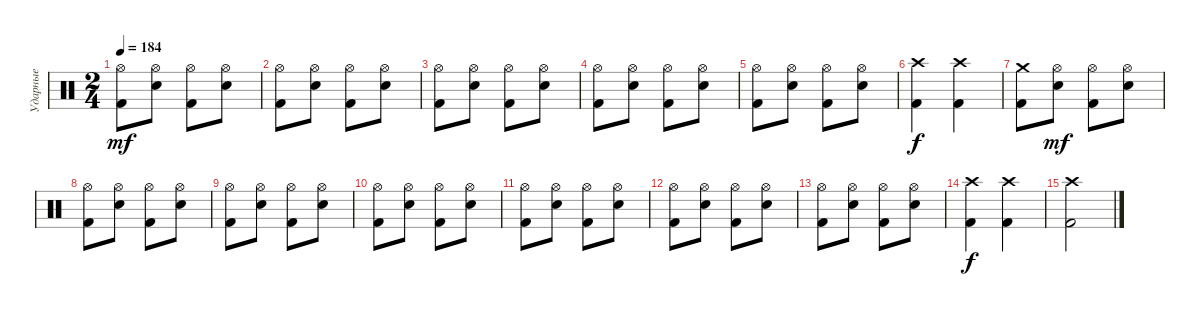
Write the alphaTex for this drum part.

\track ("Ударные" "Ударные") {instrument percussion}
\staff {score}
\articulation defaults
\ts (2 4)
\tempo 184
\clef neutral
\ks c
("Kick (hit) 2" "Hi-Hat (open)").8{dy mf} ("Snare (hit) 2" "Hi-Hat (open)").8 ("Kick (hit) 2" "Hi-Hat (open)").8 ("Snare (hit) 2" "Hi-Hat (open)").8 |
("Kick (hit) 2" "Hi-Hat (open)").8 ("Snare (hit) 2" "Hi-Hat (open)").8 ("Kick (hit) 2" "Hi-Hat (open)").8 ("Snare (hit) 2" "Hi-Hat (open)").8 |
("Kick (hit) 2" "Hi-Hat (open)").8 ("Snare (hit) 2" "Hi-Hat (open)").8 ("Kick (hit) 2" "Hi-Hat (open)").8 ("Snare (hit) 2" "Hi-Hat (open)").8 |
("Kick (hit) 2" "Hi-Hat (open)").8 ("Snare (hit) 2" "Hi-Hat (open)").8 ("Kick (hit) 2" "Hi-Hat (open)").8 ("Snare (hit) 2" "Hi-Hat (open)").8 |
("Kick (hit) 2" "Hi-Hat (open)").8 ("Snare (hit) 2" "Hi-Hat (open)").8 ("Kick (hit) 2" "Hi-Hat (open)").8 ("Snare (hit) 2" "Hi-Hat (open)").8 |
("Kick (hit) 2" "Crash high (hit)").4{dy f} ("Kick (hit) 2" "Crash high (hit)").4 |
("Kick (hit) 2" "Crash medium (hit)").8 ("Snare (hit) 2" "Hi-Hat (open)").8{dy mf} ("Kick (hit) 2" "Hi-Hat (open)").8 ("Snare (hit) 2" "Hi-Hat (open)").8 |
("Kick (hit) 2" "Hi-Hat (open)").8 ("Snare (hit) 2" "Hi-Hat (open)").8 ("Kick (hit) 2" "Hi-Hat (open)").8 ("Snare (hit) 2" "Hi-Hat (open)").8 |
("Kick (hit) 2" "Hi-Hat (open)").8 ("Snare (hit) 2" "Hi-Hat (open)").8 ("Kick (hit) 2" "Hi-Hat (open)").8 ("Snare (hit) 2" "Hi-Hat (open)").8 |
("Kick (hit) 2" "Hi-Hat (open)").8 ("Snare (hit) 2" "Hi-Hat (open)").8 ("Kick (hit) 2" "Hi-Hat (open)").8 ("Snare (hit) 2" "Hi-Hat (open)").8 |
("Kick (hit) 2" "Hi-Hat (open)").8 ("Snare (hit) 2" "Hi-Hat (open)").8 ("Kick (hit) 2" "Hi-Hat (open)").8 ("Snare (hit) 2" "Hi-Hat (open)").8 |
("Kick (hit) 2" "Hi-Hat (open)").8 ("Snare (hit) 2" "Hi-Hat (open)").8 ("Kick (hit) 2" "Hi-Hat (open)").8 ("Snare (hit) 2" "Hi-Hat (open)").8 |
("Kick (hit) 2" "Hi-Hat (open)").8 ("Snare (hit) 2" "Hi-Hat (open)").8 ("Kick (hit) 2" "Hi-Hat (open)").8 ("Snare (hit) 2" "Hi-Hat (open)").8 |
("Kick (hit) 2" "Crash high (hit)").4{dy f} ("Kick (hit) 2" "Crash high (hit)").4 |
("Kick (hit) 2" "Crash high (hit)").2
